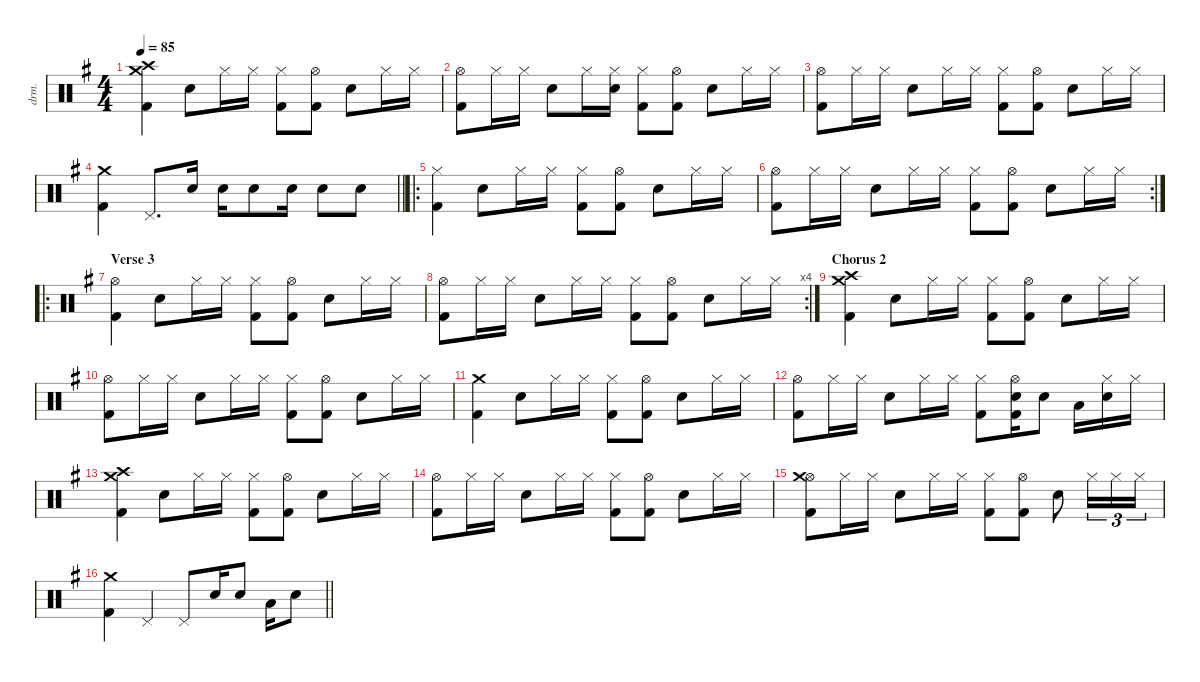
\defaultSystemsLayout 4
\hideDynamics
\bracketExtendMode nobrackets
\otherSystemsTrackNameOrientation horizontal
\track ("Drums" "drm.") {defaultSystemsLayout 4 instrument percussion}
\staff {score}
\articulation defaults
\ts (4 4)
\tempo 85
\clef neutral
\ks g
("Crash medium (hit)"{acc forcenatural} "Crash high (hit)"{acc forcenatural} "Kick (hit) 2"{acc forcenatural}).4{dy f beam Down} "Snare (hit) 2"{acc forcenatural}.8{beam Down} "Hi-Hat (closed)"{acc forcenatural}.16{beam Down} "Hi-Hat (closed)"{acc forcenatural}.16{beam Down} ("Hi-Hat (closed)"{acc forcenatural} "Kick (hit) 2"{acc forcenatural}).8{beam Down} ("Hi-Hat (open)"{acc forcenatural} "Kick (hit) 2"{acc forcenatural}).8{beam Down} "Snare (hit) 2"{acc forcenatural}.8{beam Down} "Hi-Hat (closed)"{acc forcenatural}.16{beam Down} "Hi-Hat (closed)"{acc forcenatural}.16{beam Down} |
("Hi-Hat (open)"{acc forcenatural} "Kick (hit) 2"{acc forcenatural}).8{beam Down} "Hi-Hat (closed)"{acc forcenatural}.16{beam Down} "Hi-Hat (closed)"{acc forcenatural}.16{beam Down} "Snare (hit) 2"{acc forcenatural}.8{beam Down} "Hi-Hat (closed)"{acc forcenatural}.16{beam Down} ("Hi-Hat (closed)"{acc forcenatural} "Snare (hit) 2"{acc forcenatural}).16{beam Down} ("Hi-Hat (closed)"{acc forcenatural} "Kick (hit) 2"{acc forcenatural}).8{beam Down} ("Hi-Hat (open)"{acc forcenatural} "Kick (hit) 2"{acc forcenatural}).8{beam Down} "Snare (hit) 2"{acc forcenatural}.8{beam Down} "Hi-Hat (closed)"{acc forcenatural}.16{beam Down} "Hi-Hat (closed)"{acc forcenatural}.16{beam Down} |
("Hi-Hat (open)"{acc forcenatural} "Kick (hit) 2"{acc forcenatural}).8{beam Down} "Hi-Hat (closed)"{acc forcenatural}.16{beam Down} "Hi-Hat (closed)"{acc forcenatural}.16{beam Down} "Snare (hit) 2"{acc forcenatural}.8{beam Down} "Hi-Hat (closed)"{acc forcenatural}.16{beam Down} "Hi-Hat (closed)"{acc forcenatural}.16{beam Down} ("Hi-Hat (closed)"{acc forcenatural} "Kick (hit) 2"{acc forcenatural}).8{beam Down} ("Hi-Hat (open)"{acc forcenatural} "Kick (hit) 2"{acc forcenatural}).8{beam Down} "Snare (hit) 2"{acc forcenatural}.8{beam Down} "Hi-Hat (closed)"{acc forcenatural}.16{beam Down} "Hi-Hat (closed)"{acc forcenatural}.16{beam Down} |
\barLineRight lightlight
("Crash medium (hit)"{acc forcenatural} "Kick (hit) 2"{acc forcenatural}).4{dy ff beam Down} "Pedal Hi-Hat (hit)"{acc forcenatural}.8{d beam Up} "Snare (hit) 2"{acc forcenatural}.16{dy p beam Up} "Snare (hit) 2"{acc forcenatural}.16{dy f beam Down} "Snare (hit) 2"{acc forcenatural}.8{beam Down} "Snare (hit) 2"{acc forcenatural}.16{dy mf beam Down} "Snare (hit) 2"{acc forcenatural}.8{dy f beam Down} "Snare (hit) 2"{acc forcenatural}.8{dy ff beam Down} |
\ro
\section ("" "")
("Hi-Hat (closed)"{acc forcenatural} "Kick (hit) 2"{acc forcenatural}).4{dy f beam Down} "Snare (hit) 2"{acc forcenatural}.8{beam Down} "Hi-Hat (closed)"{acc forcenatural}.16{beam Down} "Hi-Hat (closed)"{acc forcenatural}.16{beam Down} ("Hi-Hat (closed)"{acc forcenatural} "Kick (hit) 2"{acc forcenatural}).8{beam Down} ("Hi-Hat (open)"{acc forcenatural} "Kick (hit) 2"{acc forcenatural}).8{beam Down} "Snare (hit) 2"{acc forcenatural}.8{beam Down} "Hi-Hat (closed)"{acc forcenatural}.16{beam Down} "Hi-Hat (closed)"{acc forcenatural}.16{beam Down} |
\rc 2
("Hi-Hat (open)"{acc forcenatural} "Kick (hit) 2"{acc forcenatural}).8{beam Down} "Hi-Hat (closed)"{acc forcenatural}.16{beam Down} "Hi-Hat (closed)"{acc forcenatural}.16{beam Down} "Snare (hit) 2"{acc forcenatural}.8{beam Down} "Hi-Hat (closed)"{acc forcenatural}.16{beam Down} "Hi-Hat (closed)"{acc forcenatural}.16{beam Down} ("Hi-Hat (closed)"{acc forcenatural} "Kick (hit) 2"{acc forcenatural}).8{beam Down} ("Hi-Hat (open)"{acc forcenatural} "Kick (hit) 2"{acc forcenatural}).8{beam Down} "Snare (hit) 2"{acc forcenatural}.8{beam Down} "Hi-Hat (closed)"{acc forcenatural}.16{beam Down} "Hi-Hat (closed)"{acc forcenatural}.16{beam Down} |
\ro
\section ("" "Verse 3")
("Hi-Hat (open)"{acc forcenatural} "Kick (hit) 2"{acc forcenatural}).4{beam Down} "Snare (hit) 2"{acc forcenatural}.8{beam Down} "Hi-Hat (closed)"{acc forcenatural}.16{beam Down} "Hi-Hat (closed)"{acc forcenatural}.16{beam Down} ("Hi-Hat (closed)"{acc forcenatural} "Kick (hit) 2"{acc forcenatural}).8{beam Down} ("Hi-Hat (open)"{acc forcenatural} "Kick (hit) 2"{acc forcenatural}).8{beam Down} "Snare (hit) 2"{acc forcenatural}.8{beam Down} "Hi-Hat (closed)"{acc forcenatural}.16{beam Down} "Hi-Hat (closed)"{acc forcenatural}.16{beam Down} |
\rc 4
("Hi-Hat (open)"{acc forcenatural} "Kick (hit) 2"{acc forcenatural}).8{beam Down} "Hi-Hat (closed)"{acc forcenatural}.16{beam Down} "Hi-Hat (closed)"{acc forcenatural}.16{beam Down} "Snare (hit) 2"{acc forcenatural}.8{beam Down} "Hi-Hat (closed)"{acc forcenatural}.16{beam Down} "Hi-Hat (closed)"{acc forcenatural}.16{beam Down} ("Hi-Hat (closed)"{acc forcenatural} "Kick (hit) 2"{acc forcenatural}).8{beam Down} ("Hi-Hat (open)"{acc forcenatural} "Kick (hit) 2"{acc forcenatural}).8{beam Down} "Snare (hit) 2"{acc forcenatural}.8{beam Down} "Hi-Hat (closed)"{acc forcenatural}.16{beam Down} "Hi-Hat (closed)"{acc forcenatural}.16{beam Down} |
\section ("" "Chorus 2")
("Crash medium (hit)"{acc forcenatural} "Crash high (hit)"{acc forcenatural} "Kick (hit) 2"{acc forcenatural}).4{beam Down} "Snare (hit) 2"{acc forcenatural}.8{beam Down} "Hi-Hat (closed)"{acc forcenatural}.16{beam Down} "Hi-Hat (closed)"{acc forcenatural}.16{beam Down} ("Hi-Hat (closed)"{acc forcenatural} "Kick (hit) 2"{acc forcenatural}).8{beam Down} ("Hi-Hat (open)"{acc forcenatural} "Kick (hit) 2"{acc forcenatural}).8{beam Down} "Snare (hit) 2"{acc forcenatural}.8{beam Down} "Hi-Hat (closed)"{acc forcenatural}.16{beam Down} "Hi-Hat (closed)"{acc forcenatural}.16{beam Down} |
("Hi-Hat (open)"{acc forcenatural} "Kick (hit) 2"{acc forcenatural}).8{beam Down} "Hi-Hat (closed)"{acc forcenatural}.16{beam Down} "Hi-Hat (closed)"{acc forcenatural}.16{beam Down} "Snare (hit) 2"{acc forcenatural}.8{beam Down} "Hi-Hat (closed)"{acc forcenatural}.16{beam Down} "Hi-Hat (closed)"{acc forcenatural}.16{beam Down} ("Hi-Hat (closed)"{acc forcenatural} "Kick (hit) 2"{acc forcenatural}).8{beam Down} ("Hi-Hat (open)"{acc forcenatural} "Kick (hit) 2"{acc forcenatural}).8{beam Down} "Snare (hit) 2"{acc forcenatural}.8{beam Down} "Hi-Hat (closed)"{acc forcenatural}.16{beam Down} "Hi-Hat (closed)"{acc forcenatural}.16{beam Down} |
("Crash medium (hit)"{acc forcenatural} "Kick (hit) 2"{acc forcenatural}).4{beam Down} "Snare (hit) 2"{acc forcenatural}.8{beam Down} "Hi-Hat (closed)"{acc forcenatural}.16{beam Down} "Hi-Hat (closed)"{acc forcenatural}.16{beam Down} ("Hi-Hat (closed)"{acc forcenatural} "Kick (hit) 2"{acc forcenatural}).8{beam Down} ("Hi-Hat (open)"{acc forcenatural} "Kick (hit) 2"{acc forcenatural}).8{beam Down} "Snare (hit) 2"{acc forcenatural}.8{beam Down} "Hi-Hat (closed)"{acc forcenatural}.16{beam Down} "Hi-Hat (closed)"{acc forcenatural}.16{beam Down} |
("Hi-Hat (open)"{acc forcenatural} "Kick (hit) 2"{acc forcenatural}).8{beam Down} "Hi-Hat (closed)"{acc forcenatural}.16{beam Down} "Hi-Hat (closed)"{acc forcenatural}.16{beam Down} "Snare (hit) 2"{acc forcenatural}.8{beam Down} "Hi-Hat (closed)"{acc forcenatural}.16{beam Down} "Hi-Hat (closed)"{acc forcenatural}.16{beam Down} ("Hi-Hat (closed)"{acc forcenatural} "Kick (hit) 2"{acc forcenatural}).8{beam Down} ("Hi-Hat (open)"{acc forcenatural} "Snare (hit) 2"{acc forcenatural} "Kick (hit) 2"{acc forcenatural}).16{beam Down} "Snare (hit) 2"{acc forcenatural}.8{beam Down} "Low Tom (hit)"{acc forcenatural}.16{beam Down} ("Hi-Hat (closed)"{acc forcenatural} "Snare (hit) 2"{acc forcenatural}).16{beam Down} "Hi-Hat (closed)"{acc forcenatural}.16{beam Down} |
("Crash medium (hit)"{acc forcenatural} "Crash high (hit)"{acc forcenatural} "Kick (hit) 2"{acc forcenatural}).4{beam Down} "Snare (hit) 2"{acc forcenatural}.8{beam Down} "Hi-Hat (closed)"{acc forcenatural}.16{beam Down} "Hi-Hat (closed)"{acc forcenatural}.16{beam Down} ("Hi-Hat (closed)"{acc forcenatural} "Kick (hit) 2"{acc forcenatural}).8{beam Down} ("Hi-Hat (open)"{acc forcenatural} "Kick (hit) 2"{acc forcenatural}).8{beam Down} "Snare (hit) 2"{acc forcenatural}.8{beam Down} "Hi-Hat (closed)"{acc forcenatural}.16{beam Down} "Hi-Hat (closed)"{acc forcenatural}.16{beam Down} |
("Hi-Hat (open)"{acc forcenatural} "Kick (hit) 2"{acc forcenatural}).8{beam Down} "Hi-Hat (closed)"{acc forcenatural}.16{beam Down} "Hi-Hat (closed)"{acc forcenatural}.16{beam Down} "Snare (hit) 2"{acc forcenatural}.8{beam Down} "Hi-Hat (closed)"{acc forcenatural}.16{beam Down} "Hi-Hat (closed)"{acc forcenatural}.16{beam Down} ("Hi-Hat (closed)"{acc forcenatural} "Kick (hit) 2"{acc forcenatural}).8{beam Down} ("Hi-Hat (open)"{acc forcenatural} "Kick (hit) 2"{acc forcenatural}).8{beam Down} "Snare (hit) 2"{acc forcenatural}.8{beam Down} "Hi-Hat (closed)"{acc forcenatural}.16{beam Down} "Hi-Hat (closed)"{acc forcenatural}.16{beam Down} |
("Hi-Hat (open)"{acc forcenatural} "Crash medium (hit)"{acc forcenatural} "Kick (hit) 2"{acc forcenatural}).8{beam Down} "Hi-Hat (closed)"{acc forcenatural}.16{beam Down} "Hi-Hat (closed)"{acc forcenatural}.16{beam Down} "Snare (hit) 2"{acc forcenatural}.8{beam Down} "Hi-Hat (closed)"{acc forcenatural}.16{beam Down} "Hi-Hat (closed)"{acc forcenatural}.16{beam Down} ("Hi-Hat (closed)"{acc forcenatural} "Kick (hit) 2"{acc forcenatural}).8{beam Down} ("Hi-Hat (open)"{acc forcenatural} "Kick (hit) 2"{acc forcenatural}).8{beam Down} "Snare (hit) 2"{acc forcenatural}.8{beam Down} "Hi-Hat (closed)"{acc forcenatural}.16{tu (3 2) beam Down} "Hi-Hat (closed)"{acc forcenatural}.16{tu (3 2) beam Down} "Hi-Hat (closed)"{acc forcenatural}.16{tu (3 2) beam Down} |
\barLineRight lightlight
("Crash medium (hit)"{acc forcenatural} "Kick (hit) 2"{acc forcenatural}).4{dy ff beam Down} "Pedal Hi-Hat (hit)"{acc forcenatural}.4{beam Up} "Pedal Hi-Hat (hit)"{acc forcenatural}.8{beam Up} "Snare (hit) 2"{acc forcenatural}.16{dy mp beam Up} "Snare (hit) 2"{acc forcenatural}.8{dy f beam Up} "Low Tom (hit)"{acc forcenatural}.16{dy fff beam Down} "Snare (hit) 2"{acc forcenatural}.8{dy f beam Down}
